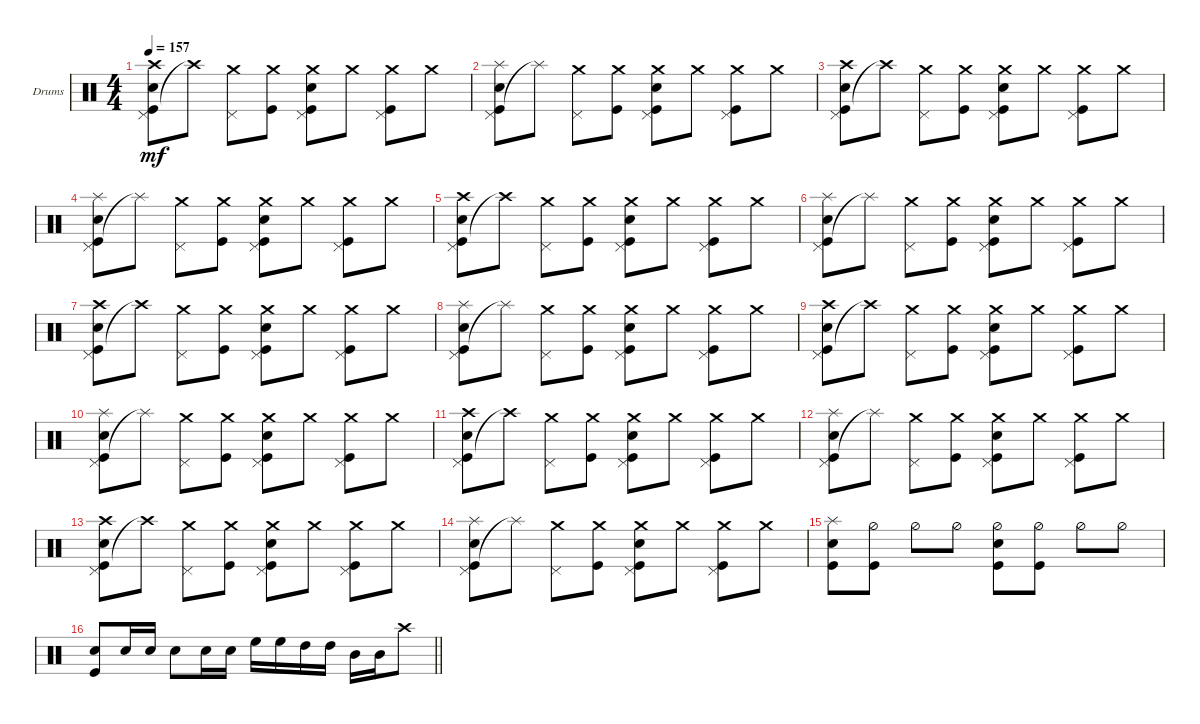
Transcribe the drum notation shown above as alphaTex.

\bracketExtendMode groupsimilarinstruments
\firstSystemTrackNameOrientation horizontal
\otherSystemsTrackNameOrientation horizontal
\track ("Drumkit" "Drums") {instrument percussion}
\staff {score}
\articulation defaults
\ts (4 4)
\tempo 157
\clef neutral
\scale
0.333333
\ks c
("Kick (hit)" "Snare (hit) 2" "Pedal Hi-Hat (hit)" "Crash high (hit)").8{dy mf} "Crash high (hit)"{t}.8 ("Pedal Hi-Hat (hit)" "Crash medium (hit)").8 ("Kick (hit)" "Crash medium (hit)").8 ("Kick (hit)" "Snare (hit) 2" "Pedal Hi-Hat (hit)" "Crash medium (hit)").8 "Crash medium (hit)".8 ("Pedal Hi-Hat (hit)" "Kick (hit)" "Crash medium (hit)").8 "Crash medium (hit)".8 |
\scale
0.333333 ("Kick (hit)" "Snare (hit) 2" "Pedal Hi-Hat (hit)" "Splash (hit)").8 "Splash (hit)"{t}.8 ("Pedal Hi-Hat (hit)" "Crash medium (hit)").8 ("Kick (hit)" "Crash medium (hit)").8 ("Kick (hit)" "Snare (hit) 2" "Pedal Hi-Hat (hit)" "Crash medium (hit)").8 "Crash medium (hit)".8 ("Pedal Hi-Hat (hit)" "Kick (hit)" "Crash medium (hit)").8 "Crash medium (hit)".8 |
\scale
0.333333 ("Kick (hit)" "Snare (hit) 2" "Pedal Hi-Hat (hit)" "Crash high (hit)").8 "Crash high (hit)"{t}.8 ("Pedal Hi-Hat (hit)" "Crash medium (hit)").8 ("Kick (hit)" "Crash medium (hit)").8 ("Kick (hit)" "Snare (hit) 2" "Pedal Hi-Hat (hit)" "Crash medium (hit)").8 "Crash medium (hit)".8 ("Pedal Hi-Hat (hit)" "Kick (hit)" "Crash medium (hit)").8 "Crash medium (hit)".8 |
\scale
0.333333 ("Kick (hit)" "Snare (hit) 2" "Pedal Hi-Hat (hit)" "Splash (hit)").8 "Splash (hit)"{t}.8 ("Pedal Hi-Hat (hit)" "Crash medium (hit)").8 ("Kick (hit)" "Crash medium (hit)").8 ("Kick (hit)" "Snare (hit) 2" "Pedal Hi-Hat (hit)" "Crash medium (hit)").8 "Crash medium (hit)".8 ("Pedal Hi-Hat (hit)" "Kick (hit)" "Crash medium (hit)").8 "Crash medium (hit)".8 |
\scale
0.333333 ("Kick (hit)" "Snare (hit) 2" "Pedal Hi-Hat (hit)" "Crash high (hit)").8 "Crash high (hit)"{t}.8 ("Pedal Hi-Hat (hit)" "Crash medium (hit)").8 ("Kick (hit)" "Crash medium (hit)").8 ("Kick (hit)" "Snare (hit) 2" "Pedal Hi-Hat (hit)" "Crash medium (hit)").8 "Crash medium (hit)".8 ("Pedal Hi-Hat (hit)" "Kick (hit)" "Crash medium (hit)").8 "Crash medium (hit)".8 |
\scale
0.333333 ("Kick (hit)" "Snare (hit) 2" "Pedal Hi-Hat (hit)" "Splash (hit)").8 "Splash (hit)"{t}.8 ("Pedal Hi-Hat (hit)" "Crash medium (hit)").8 ("Kick (hit)" "Crash medium (hit)").8 ("Kick (hit)" "Snare (hit) 2" "Pedal Hi-Hat (hit)" "Crash medium (hit)").8 "Crash medium (hit)".8 ("Pedal Hi-Hat (hit)" "Kick (hit)" "Crash medium (hit)").8 "Crash medium (hit)".8 |
\scale
0.333333 ("Kick (hit)" "Snare (hit) 2" "Pedal Hi-Hat (hit)" "Crash high (hit)").8 "Crash high (hit)"{t}.8 ("Pedal Hi-Hat (hit)" "Crash medium (hit)").8 ("Kick (hit)" "Crash medium (hit)").8 ("Kick (hit)" "Snare (hit) 2" "Pedal Hi-Hat (hit)" "Crash medium (hit)").8 "Crash medium (hit)".8 ("Pedal Hi-Hat (hit)" "Kick (hit)" "Crash medium (hit)").8 "Crash medium (hit)".8 |
\scale
0.333333 ("Kick (hit)" "Snare (hit) 2" "Pedal Hi-Hat (hit)" "Splash (hit)").8 "Splash (hit)"{t}.8 ("Pedal Hi-Hat (hit)" "Crash medium (hit)").8 ("Kick (hit)" "Crash medium (hit)").8 ("Kick (hit)" "Snare (hit) 2" "Pedal Hi-Hat (hit)" "Crash medium (hit)").8 "Crash medium (hit)".8 ("Pedal Hi-Hat (hit)" "Kick (hit)" "Crash medium (hit)").8 "Crash medium (hit)".8 |
\scale
0.333333 ("Kick (hit)" "Snare (hit) 2" "Pedal Hi-Hat (hit)" "Crash high (hit)").8 "Crash high (hit)"{t}.8 ("Pedal Hi-Hat (hit)" "Crash medium (hit)").8 ("Kick (hit)" "Crash medium (hit)").8 ("Kick (hit)" "Snare (hit) 2" "Pedal Hi-Hat (hit)" "Crash medium (hit)").8 "Crash medium (hit)".8 ("Pedal Hi-Hat (hit)" "Kick (hit)" "Crash medium (hit)").8 "Crash medium (hit)".8 |
\scale
0.333333 ("Kick (hit)" "Snare (hit) 2" "Pedal Hi-Hat (hit)" "Splash (hit)").8 "Splash (hit)"{t}.8 ("Pedal Hi-Hat (hit)" "Crash medium (hit)").8 ("Kick (hit)" "Crash medium (hit)").8 ("Kick (hit)" "Snare (hit) 2" "Pedal Hi-Hat (hit)" "Crash medium (hit)").8 "Crash medium (hit)".8 ("Pedal Hi-Hat (hit)" "Kick (hit)" "Crash medium (hit)").8 "Crash medium (hit)".8 |
\scale
0.333333 ("Kick (hit)" "Snare (hit) 2" "Pedal Hi-Hat (hit)" "Crash high (hit)").8 "Crash high (hit)"{t}.8 ("Pedal Hi-Hat (hit)" "Crash medium (hit)").8 ("Kick (hit)" "Crash medium (hit)").8 ("Kick (hit)" "Snare (hit) 2" "Pedal Hi-Hat (hit)" "Crash medium (hit)").8 "Crash medium (hit)".8 ("Pedal Hi-Hat (hit)" "Kick (hit)" "Crash medium (hit)").8 "Crash medium (hit)".8 |
\scale
0.333333 ("Kick (hit)" "Snare (hit) 2" "Pedal Hi-Hat (hit)" "Splash (hit)").8 "Splash (hit)"{t}.8 ("Pedal Hi-Hat (hit)" "Crash medium (hit)").8 ("Kick (hit)" "Crash medium (hit)").8 ("Kick (hit)" "Snare (hit) 2" "Pedal Hi-Hat (hit)" "Crash medium (hit)").8 "Crash medium (hit)".8 ("Pedal Hi-Hat (hit)" "Kick (hit)" "Crash medium (hit)").8 "Crash medium (hit)".8 |
\scale
0.333333 ("Kick (hit)" "Snare (hit) 2" "Pedal Hi-Hat (hit)" "Crash high (hit)").8 "Crash high (hit)"{t}.8 ("Pedal Hi-Hat (hit)" "Crash medium (hit)").8 ("Kick (hit)" "Crash medium (hit)").8 ("Kick (hit)" "Snare (hit) 2" "Pedal Hi-Hat (hit)" "Crash medium (hit)").8 "Crash medium (hit)".8 ("Pedal Hi-Hat (hit)" "Kick (hit)" "Crash medium (hit)").8 "Crash medium (hit)".8 |
\scale
0.333333 ("Kick (hit)" "Snare (hit) 2" "Pedal Hi-Hat (hit)" "Splash (hit)").8 "Splash (hit)"{t}.8 ("Pedal Hi-Hat (hit)" "Crash medium (hit)").8 ("Kick (hit)" "Crash medium (hit)").8 ("Kick (hit)" "Snare (hit) 2" "Pedal Hi-Hat (hit)" "Crash medium (hit)").8 "Crash medium (hit)".8 ("Pedal Hi-Hat (hit)" "Kick (hit)" "Crash medium (hit)").8 "Crash medium (hit)".8 |
\scale
0.333333 ("Kick (hit)" "Snare (hit) 2" "Splash (hit)").8 ("Kick (hit)" "Hi-Hat (half)").8 "Hi-Hat (half)".8 "Hi-Hat (half)".8 ("Kick (hit)" "Snare (hit) 2" "Hi-Hat (half)").8 ("Kick (hit)" "Hi-Hat (half)").8 "Hi-Hat (half)".8 "Hi-Hat (half)".8 |
\scale
0.333333
\barLineRight lightlight
("Snare (hit) 2" "Kick (hit)").8 "Snare (hit) 2".16 "Snare (hit) 2".16 "Snare (hit) 2".8 "Snare (hit) 2".16 "Snare (hit) 2".16 "High Floor Tom (hit)".16 "High Floor Tom (hit)".16 "High Tom (hit)".16 "High Tom (hit)".16 "Mid Tom (hit)".16 "Mid Tom (hit)".16 "Crash high (hit)".8
